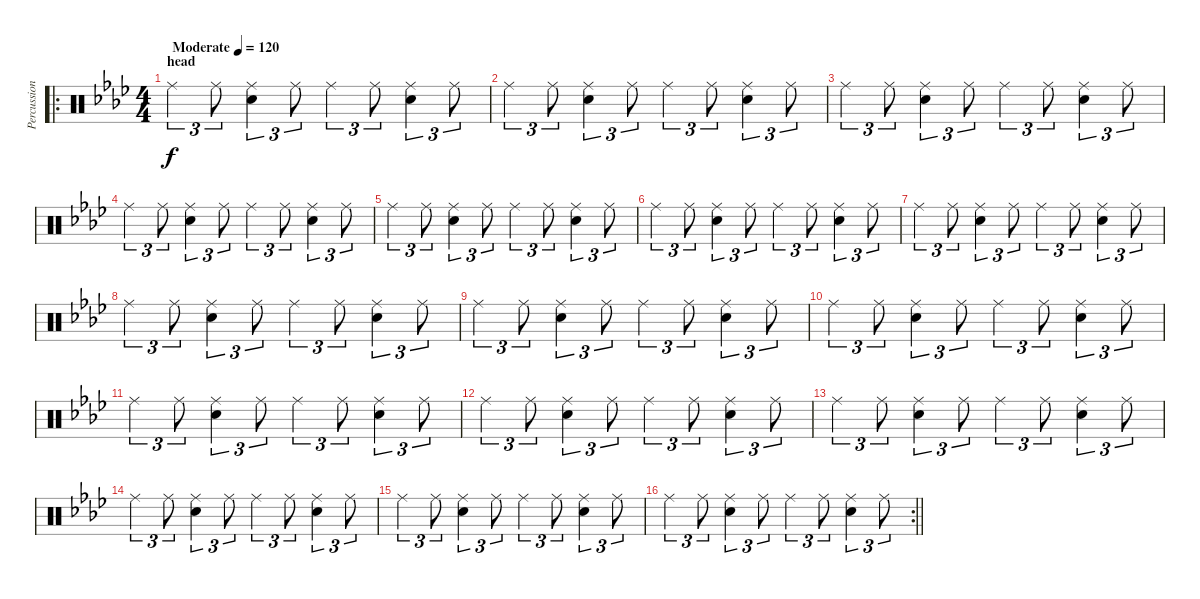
\track ("Percussion" "Percussion") {instrument percussion}
\staff {score}
\articulation defaults
\ro
\ts (4 4)
\section ("" "head")
\tempo (120 "Moderate")
\clef neutral
\ks ab "Ride (middle)".4{tu (3 2) dy f} "Ride (middle)".8{tu (3 2)}
("Ride (middle)" "Snare (hit) 2").4{tu (3 2)} "Ride (middle)".8{tu (3 2)} "Ride (middle)".4{tu (3 2)} "Ride (middle)".8{tu (3 2)} ("Ride (middle)" "Snare (hit) 2").4{tu (3 2)} "Ride (middle)".8{tu (3 2)} |
"Ride (middle)".4{tu (3 2)} "Ride (middle)".8{tu (3 2)} ("Ride (middle)" "Snare (hit) 2").4{tu (3 2)} "Ride (middle)".8{tu (3 2)} "Ride (middle)".4{tu (3 2)} "Ride (middle)".8{tu (3 2)} ("Ride (middle)" "Snare (hit) 2").4{tu (3 2)} "Ride (middle)".8{tu (3 2)} |
"Ride (middle)".4{tu (3 2)} "Ride (middle)".8{tu (3 2)} ("Ride (middle)" "Snare (hit) 2").4{tu (3 2)} "Ride (middle)".8{tu (3 2)} "Ride (middle)".4{tu (3 2)} "Ride (middle)".8{tu (3 2)} ("Ride (middle)" "Snare (hit) 2").4{tu (3 2)} "Ride (middle)".8{tu (3 2)} |
"Ride (middle)".4{tu (3 2)} "Ride (middle)".8{tu (3 2)} ("Ride (middle)" "Snare (hit) 2").4{tu (3 2)} "Ride (middle)".8{tu (3 2)} "Ride (middle)".4{tu (3 2)} "Ride (middle)".8{tu (3 2)} ("Ride (middle)" "Snare (hit) 2").4{tu (3 2)} "Ride (middle)".8{tu (3 2)} |
"Ride (middle)".4{tu (3 2)} "Ride (middle)".8{tu (3 2)} ("Ride (middle)" "Snare (hit) 2").4{tu (3 2)} "Ride (middle)".8{tu (3 2)} "Ride (middle)".4{tu (3 2)} "Ride (middle)".8{tu (3 2)} ("Ride (middle)" "Snare (hit) 2").4{tu (3 2)} "Ride (middle)".8{tu (3 2)} |
"Ride (middle)".4{tu (3 2)} "Ride (middle)".8{tu (3 2)} ("Ride (middle)" "Snare (hit) 2").4{tu (3 2)} "Ride (middle)".8{tu (3 2)} "Ride (middle)".4{tu (3 2)} "Ride (middle)".8{tu (3 2)} ("Ride (middle)" "Snare (hit) 2").4{tu (3 2)} "Ride (middle)".8{tu (3 2)} |
"Ride (middle)".4{tu (3 2)} "Ride (middle)".8{tu (3 2)} ("Ride (middle)" "Snare (hit) 2").4{tu (3 2)} "Ride (middle)".8{tu (3 2)} "Ride (middle)".4{tu (3 2)} "Ride (middle)".8{tu (3 2)} ("Ride (middle)" "Snare (hit) 2").4{tu (3 2)} "Ride (middle)".8{tu (3 2)} |
"Ride (middle)".4{tu (3 2)} "Ride (middle)".8{tu (3 2)} ("Ride (middle)" "Snare (hit) 2").4{tu (3 2)} "Ride (middle)".8{tu (3 2)} "Ride (middle)".4{tu (3 2)} "Ride (middle)".8{tu (3 2)} ("Ride (middle)" "Snare (hit) 2").4{tu (3 2)} "Ride (middle)".8{tu (3 2)} |
"Ride (middle)".4{tu (3 2)} "Ride (middle)".8{tu (3 2)} ("Ride (middle)" "Snare (hit) 2").4{tu (3 2)} "Ride (middle)".8{tu (3 2)} "Ride (middle)".4{tu (3 2)} "Ride (middle)".8{tu (3 2)} ("Ride (middle)" "Snare (hit) 2").4{tu (3 2)} "Ride (middle)".8{tu (3 2)} |
"Ride (middle)".4{tu (3 2)} "Ride (middle)".8{tu (3 2)} ("Ride (middle)" "Snare (hit) 2").4{tu (3 2)} "Ride (middle)".8{tu (3 2)} "Ride (middle)".4{tu (3 2)} "Ride (middle)".8{tu (3 2)} ("Ride (middle)" "Snare (hit) 2").4{tu (3 2)} "Ride (middle)".8{tu (3 2)} |
"Ride (middle)".4{tu (3 2)} "Ride (middle)".8{tu (3 2)} ("Ride (middle)" "Snare (hit) 2").4{tu (3 2)} "Ride (middle)".8{tu (3 2)} "Ride (middle)".4{tu (3 2)} "Ride (middle)".8{tu (3 2)} ("Ride (middle)" "Snare (hit) 2").4{tu (3 2)} "Ride (middle)".8{tu (3 2)} |
"Ride (middle)".4{tu (3 2)} "Ride (middle)".8{tu (3 2)} ("Ride (middle)" "Snare (hit) 2").4{tu (3 2)} "Ride (middle)".8{tu (3 2)} "Ride (middle)".4{tu (3 2)} "Ride (middle)".8{tu (3 2)} ("Ride (middle)" "Snare (hit) 2").4{tu (3 2)} "Ride (middle)".8{tu (3 2)} |
"Ride (middle)".4{tu (3 2)} "Ride (middle)".8{tu (3 2)} ("Ride (middle)" "Snare (hit) 2").4{tu (3 2)} "Ride (middle)".8{tu (3 2)} "Ride (middle)".4{tu (3 2)} "Ride (middle)".8{tu (3 2)} ("Ride (middle)" "Snare (hit) 2").4{tu (3 2)} "Ride (middle)".8{tu (3 2)} |
"Ride (middle)".4{tu (3 2)} "Ride (middle)".8{tu (3 2)} ("Ride (middle)" "Snare (hit) 2").4{tu (3 2)} "Ride (middle)".8{tu (3 2)} "Ride (middle)".4{tu (3 2)} "Ride (middle)".8{tu (3 2)} ("Ride (middle)" "Snare (hit) 2").4{tu (3 2)} "Ride (middle)".8{tu (3 2)} |
"Ride (middle)".4{tu (3 2)} "Ride (middle)".8{tu (3 2)} ("Ride (middle)" "Snare (hit) 2").4{tu (3 2)} "Ride (middle)".8{tu (3 2)} "Ride (middle)".4{tu (3 2)} "Ride (middle)".8{tu (3 2)} ("Ride (middle)" "Snare (hit) 2").4{tu (3 2)} "Ride (middle)".8{tu (3 2)} |
\rc 2
\barLineRight lightlight "Ride (middle)".4{tu (3 2)} "Ride (middle)".8{tu (3 2)}
("Ride (middle)" "Snare (hit) 2").4{tu (3 2)} "Ride (middle)".8{tu (3 2)} "Ride (middle)".4{tu (3 2)} "Ride (middle)".8{tu (3 2)} ("Ride (middle)" "Snare (hit) 2").4{tu (3 2)} "Ride (middle)".8{tu (3 2)}
